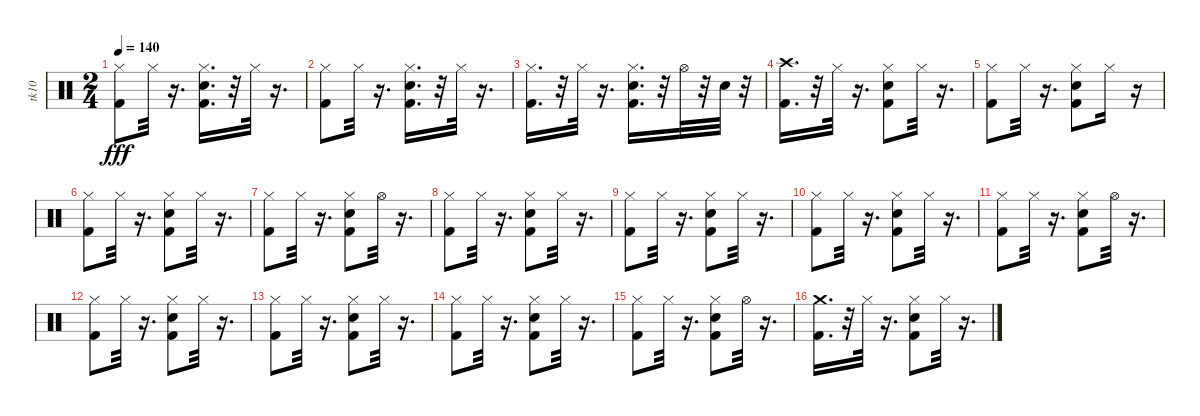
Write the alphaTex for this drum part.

\track ("tk10" "tk10") {instrument percussion}
\staff {score}
\articulation defaults
\ts (2 4)
\tempo 140
\clef neutral
\ks c
("Kick (hit) 2" "Hi-Hat (closed)").8{dy fff} "Hi-Hat (closed)".32 r.16{d} ("Snare (hit) 2" "Kick (hit) 2" "Hi-Hat (closed)").16{d} r.32 "Hi-Hat (closed)".32 r.16{d} |
("Kick (hit) 2" "Hi-Hat (closed)").8 "Hi-Hat (closed)".32 r.16{d} ("Hi-Hat (closed)" "Snare (hit) 2" "Kick (hit) 2").16{d} r.32 "Hi-Hat (closed)".32 r.16{d} |
("Kick (hit) 2" "Hi-Hat (closed)").16{d} r.32 "Hi-Hat (closed)".32 r.16{d} ("Snare (hit) 2" "Kick (hit) 2" "Hi-Hat (closed)").16{d} r.32 "Hi-Hat (open)".32 r.32 "Snare (hit) 2".32 r.32 |
("Kick (hit) 2" "Crash high (hit)").16{d} r.32 "Hi-Hat (closed)".32 r.16{d} ("Kick (hit) 2" "Snare (hit) 2" "Hi-Hat (closed)").8 "Hi-Hat (closed)".32 r.16{d} |
("Kick (hit) 2" "Hi-Hat (closed)").8 "Hi-Hat (closed)".32 r.16{d} ("Snare (hit) 2" "Kick (hit) 2" "Hi-Hat (closed)").8 "Hi-Hat (closed)".16 r.16 |
("Kick (hit) 2" "Hi-Hat (closed)").8 "Hi-Hat (closed)".32 r.16{d} ("Snare (hit) 2" "Kick (hit) 2" "Hi-Hat (closed)").8 "Hi-Hat (closed)".32 r.16{d} |
("Kick (hit) 2" "Hi-Hat (closed)").8 "Hi-Hat (closed)".32 r.16{d} ("Kick (hit) 2" "Snare (hit) 2" "Hi-Hat (closed)").8 "Hi-Hat (open)".32 r.16{d} |
("Kick (hit) 2" "Hi-Hat (closed)").8 "Hi-Hat (closed)".32 r.16{d} ("Snare (hit) 2" "Kick (hit) 2" "Hi-Hat (closed)").8 "Hi-Hat (closed)".32 r.16{d} |
("Kick (hit) 2" "Hi-Hat (closed)").8 "Hi-Hat (closed)".32 r.16{d} ("Snare (hit) 2" "Kick (hit) 2" "Hi-Hat (closed)").8 "Hi-Hat (closed)".32 r.16{d} |
("Kick (hit) 2" "Hi-Hat (closed)").8 "Hi-Hat (closed)".32 r.16{d} ("Hi-Hat (closed)" "Snare (hit) 2" "Kick (hit) 2").8 "Hi-Hat (closed)".32 r.16{d} |
("Kick (hit) 2" "Hi-Hat (closed)").8 "Hi-Hat (closed)".32 r.16{d} ("Kick (hit) 2" "Hi-Hat (closed)" "Snare (hit) 2").8 "Hi-Hat (open)".32 r.16{d} |
("Kick (hit) 2" "Hi-Hat (closed)").8 "Hi-Hat (closed)".32 r.16{d} ("Kick (hit) 2" "Hi-Hat (closed)" "Snare (hit) 2").8 "Hi-Hat (closed)".32 r.16{d} |
("Kick (hit) 2" "Hi-Hat (closed)").8 "Hi-Hat (closed)".32 r.16{d} ("Snare (hit) 2" "Kick (hit) 2" "Hi-Hat (closed)").8 "Hi-Hat (closed)".32 r.16{d} |
("Kick (hit) 2" "Hi-Hat (closed)").8 "Hi-Hat (closed)".32 r.16{d} ("Kick (hit) 2" "Hi-Hat (closed)" "Snare (hit) 2").8 "Hi-Hat (closed)".32 r.16{d} |
("Kick (hit) 2" "Hi-Hat (closed)").8 "Hi-Hat (closed)".32 r.16{d} ("Kick (hit) 2" "Hi-Hat (closed)" "Snare (hit) 2").8 "Hi-Hat (open)".32 r.16{d} |
("Kick (hit) 2" "Crash medium (hit)").16{d} r.32 "Hi-Hat (closed)".32 r.16{d} ("Kick (hit) 2" "Snare (hit) 2" "Hi-Hat (closed)").8 "Hi-Hat (closed)".32 r.16{d}
